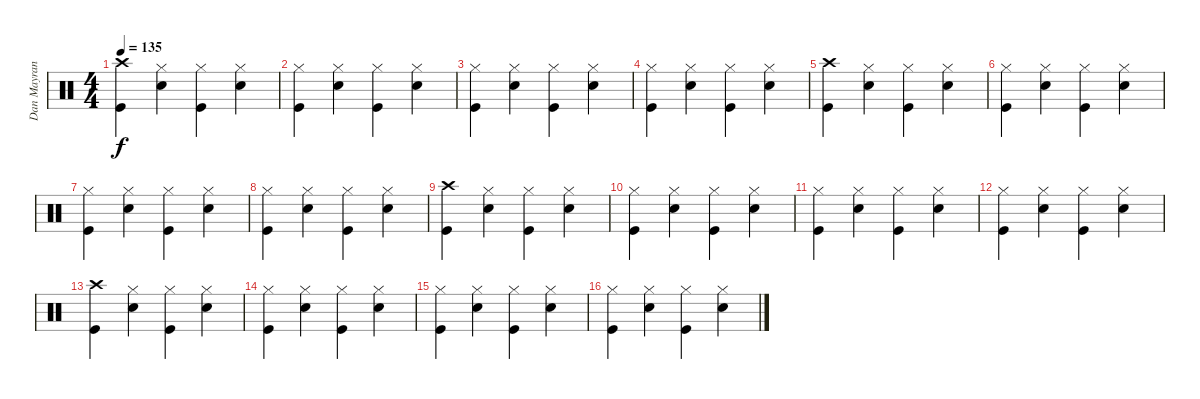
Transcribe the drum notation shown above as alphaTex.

\track ("Dan Mayrand - Drum" "Dan Mayran") {instrument percussion}
\staff {score}
\articulation defaults
\ts (4 4)
\tempo 135
\clef neutral
\ks c
("Crash high (hit)" "Kick (hit)").4{dy f} ("Hi-Hat (closed)" "Snare (hit) 2").4 ("Hi-Hat (closed)" "Kick (hit)").4 ("Hi-Hat (closed)" "Snare (hit) 2").4 |
("Hi-Hat (closed)" "Kick (hit)").4 ("Hi-Hat (closed)" "Snare (hit) 2").4 ("Hi-Hat (closed)" "Kick (hit)").4 ("Hi-Hat (closed)" "Snare (hit) 2").4 |
("Hi-Hat (closed)" "Kick (hit)").4 ("Hi-Hat (closed)" "Snare (hit) 2").4 ("Hi-Hat (closed)" "Kick (hit)").4 ("Hi-Hat (closed)" "Snare (hit) 2").4 |
("Hi-Hat (closed)" "Kick (hit)").4 ("Hi-Hat (closed)" "Snare (hit) 2").4 ("Hi-Hat (closed)" "Kick (hit)").4 ("Hi-Hat (closed)" "Snare (hit) 2").4 |
("Crash high (hit)" "Kick (hit)").4 ("Hi-Hat (closed)" "Snare (hit) 2").4 ("Hi-Hat (closed)" "Kick (hit)").4 ("Hi-Hat (closed)" "Snare (hit) 2").4 |
("Hi-Hat (closed)" "Kick (hit)").4 ("Hi-Hat (closed)" "Snare (hit) 2").4 ("Hi-Hat (closed)" "Kick (hit)").4 ("Hi-Hat (closed)" "Snare (hit) 2").4 |
("Hi-Hat (closed)" "Kick (hit)").4 ("Hi-Hat (closed)" "Snare (hit) 2").4 ("Hi-Hat (closed)" "Kick (hit)").4 ("Hi-Hat (closed)" "Snare (hit) 2").4 |
("Hi-Hat (closed)" "Kick (hit)").4 ("Hi-Hat (closed)" "Snare (hit) 2").4 ("Hi-Hat (closed)" "Kick (hit)").4 ("Hi-Hat (closed)" "Snare (hit) 2").4 |
("Crash high (hit)" "Kick (hit)").4 ("Hi-Hat (closed)" "Snare (hit) 2").4 ("Hi-Hat (closed)" "Kick (hit)").4 ("Hi-Hat (closed)" "Snare (hit) 2").4 |
("Hi-Hat (closed)" "Kick (hit)").4 ("Hi-Hat (closed)" "Snare (hit) 2").4 ("Hi-Hat (closed)" "Kick (hit)").4 ("Hi-Hat (closed)" "Snare (hit) 2").4 |
("Hi-Hat (closed)" "Kick (hit)").4 ("Hi-Hat (closed)" "Snare (hit) 2").4 ("Hi-Hat (closed)" "Kick (hit)").4 ("Hi-Hat (closed)" "Snare (hit) 2").4 |
("Hi-Hat (closed)" "Kick (hit)").4 ("Hi-Hat (closed)" "Snare (hit) 2").4 ("Hi-Hat (closed)" "Kick (hit)").4 ("Hi-Hat (closed)" "Snare (hit) 2").4 |
("Crash high (hit)" "Kick (hit)").4 ("Hi-Hat (closed)" "Snare (hit) 2").4 ("Hi-Hat (closed)" "Kick (hit)").4 ("Hi-Hat (closed)" "Snare (hit) 2").4 |
("Hi-Hat (closed)" "Kick (hit)").4 ("Hi-Hat (closed)" "Snare (hit) 2").4 ("Hi-Hat (closed)" "Kick (hit)").4 ("Hi-Hat (closed)" "Snare (hit) 2").4 |
("Hi-Hat (closed)" "Kick (hit)").4 ("Hi-Hat (closed)" "Snare (hit) 2").4 ("Hi-Hat (closed)" "Kick (hit)").4 ("Hi-Hat (closed)" "Snare (hit) 2").4 |
("Hi-Hat (closed)" "Kick (hit)").4 ("Hi-Hat (closed)" "Snare (hit) 2").4 ("Hi-Hat (closed)" "Kick (hit)").4 ("Hi-Hat (closed)" "Snare (hit) 2").4
